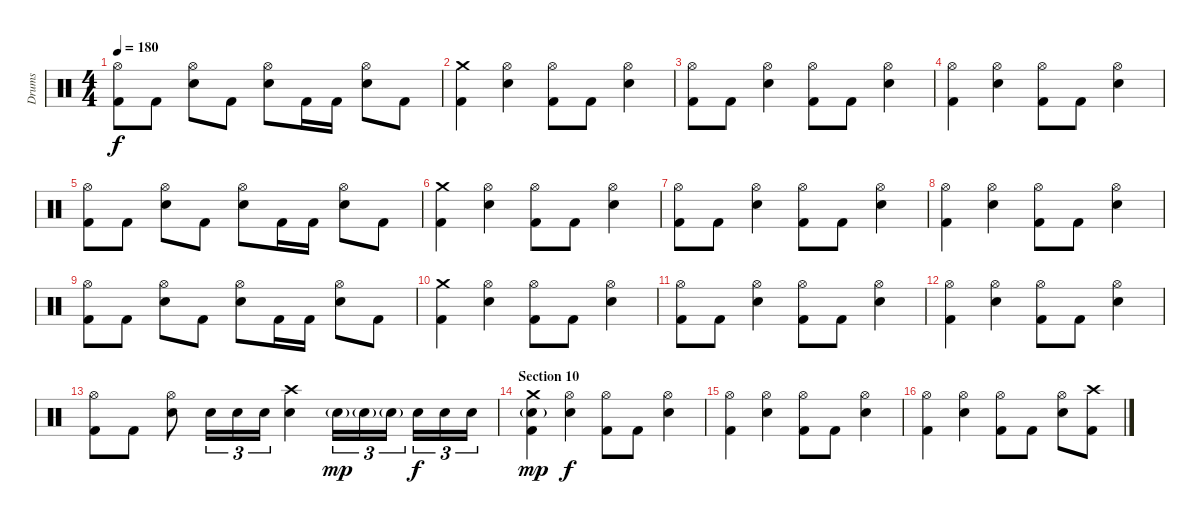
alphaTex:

\track ("Drums" "Drums") {instrument percussion}
\staff {score}
\articulation defaults
\ts (4 4)
\tempo 180
\clef neutral
\ks c
("Hi-Hat (open)" "Kick (hit) 2").8{dy f} "Kick (hit) 2".8 ("Hi-Hat (open)" "Electric Snare (hit)").8 "Kick (hit) 2".8 ("Hi-Hat (open)" "Electric Snare (hit)").8 "Kick (hit) 2".16 "Kick (hit) 2".16 ("Hi-Hat (open)" "Electric Snare (hit)").8 "Kick (hit) 2".8 |
("Crash medium (hit)" "Kick (hit) 2").4 ("Hi-Hat (open)" "Electric Snare (hit)").4 ("Hi-Hat (open)" "Kick (hit) 2").8 "Kick (hit) 2".8 ("Hi-Hat (open)" "Electric Snare (hit)").4 |
("Hi-Hat (open)" "Kick (hit) 2").8 "Kick (hit) 2".8 ("Hi-Hat (open)" "Electric Snare (hit)").4 ("Hi-Hat (open)" "Kick (hit) 2").8 "Kick (hit) 2".8 ("Hi-Hat (open)" "Electric Snare (hit)").4 |
("Hi-Hat (open)" "Kick (hit) 2").4 ("Hi-Hat (open)" "Electric Snare (hit)").4 ("Hi-Hat (open)" "Kick (hit) 2").8 "Kick (hit) 2".8 ("Hi-Hat (open)" "Electric Snare (hit)").4 |
("Hi-Hat (open)" "Kick (hit) 2").8 "Kick (hit) 2".8 ("Hi-Hat (open)" "Electric Snare (hit)").8 "Kick (hit) 2".8 ("Hi-Hat (open)" "Electric Snare (hit)").8 "Kick (hit) 2".16 "Kick (hit) 2".16 ("Hi-Hat (open)" "Electric Snare (hit)").8 "Kick (hit) 2".8 |
("Crash medium (hit)" "Kick (hit) 2").4 ("Hi-Hat (open)" "Electric Snare (hit)").4 ("Hi-Hat (open)" "Kick (hit) 2").8 "Kick (hit) 2".8 ("Hi-Hat (open)" "Electric Snare (hit)").4 |
("Hi-Hat (open)" "Kick (hit) 2").8 "Kick (hit) 2".8 ("Hi-Hat (open)" "Electric Snare (hit)").4 ("Hi-Hat (open)" "Kick (hit) 2").8 "Kick (hit) 2".8 ("Hi-Hat (open)" "Electric Snare (hit)").4 |
("Hi-Hat (open)" "Kick (hit) 2").4 ("Hi-Hat (open)" "Electric Snare (hit)").4 ("Hi-Hat (open)" "Kick (hit) 2").8 "Kick (hit) 2".8 ("Hi-Hat (open)" "Electric Snare (hit)").4 |
("Hi-Hat (open)" "Kick (hit) 2").8 "Kick (hit) 2".8 ("Hi-Hat (open)" "Electric Snare (hit)").8 "Kick (hit) 2".8 ("Hi-Hat (open)" "Electric Snare (hit)").8 "Kick (hit) 2".16 "Kick (hit) 2".16 ("Hi-Hat (open)" "Electric Snare (hit)").8 "Kick (hit) 2".8 |
("Crash medium (hit)" "Kick (hit) 2").4 ("Hi-Hat (open)" "Electric Snare (hit)").4 ("Hi-Hat (open)" "Kick (hit) 2").8 "Kick (hit) 2".8 ("Hi-Hat (open)" "Electric Snare (hit)").4 |
("Hi-Hat (open)" "Kick (hit) 2").8 "Kick (hit) 2".8 ("Hi-Hat (open)" "Electric Snare (hit)").4 ("Hi-Hat (open)" "Kick (hit) 2").8 "Kick (hit) 2".8 ("Hi-Hat (open)" "Electric Snare (hit)").4 |
("Hi-Hat (open)" "Kick (hit) 2").4 ("Hi-Hat (open)" "Electric Snare (hit)").4 ("Hi-Hat (open)" "Kick (hit) 2").8 "Kick (hit) 2".8 ("Hi-Hat (open)" "Electric Snare (hit)").4 |
("Hi-Hat (open)" "Kick (hit) 2").8 "Kick (hit) 2".8 ("Hi-Hat (open)" "Electric Snare (hit)").8 "Electric Snare (hit)".16{tu (3 2)} "Electric Snare (hit)".16{tu (3 2)} "Electric Snare (hit)".16{tu (3 2)} ("Crash high (hit)" "Electric Snare (hit)").4 "Electric Snare (hit)"{g}.16{tu (3 2) dy mp} "Electric Snare (hit)"{g}.16{tu (3 2)} "Electric Snare (hit)"{g}.16{tu (3 2) beam splitsecondary} "Electric Snare (hit)".16{tu (3 2) dy f} "Electric Snare (hit)".16{tu (3 2)} "Electric Snare (hit)".16{tu (3 2)} |
\section ("" "Section 10")
("Crash medium (hit)" "Electric Snare (hit)"{g} "Kick (hit) 2").4{dy mp} ("Hi-Hat (open)" "Electric Snare (hit)").4{dy f} ("Hi-Hat (open)" "Kick (hit) 2").8 "Kick (hit) 2".8 ("Hi-Hat (open)" "Electric Snare (hit)").4 |
("Hi-Hat (open)" "Kick (hit) 2").4 ("Hi-Hat (open)" "Electric Snare (hit)").4 ("Hi-Hat (open)" "Kick (hit) 2").8 "Kick (hit) 2".8 ("Hi-Hat (open)" "Electric Snare (hit)").4 |
("Hi-Hat (open)" "Kick (hit) 2").4 ("Hi-Hat (open)" "Electric Snare (hit)").4 ("Hi-Hat (open)" "Kick (hit) 2").8 "Kick (hit) 2".8 ("Hi-Hat (open)" "Electric Snare (hit)").8 ("Crash high (hit)" "Kick (hit) 2").8
